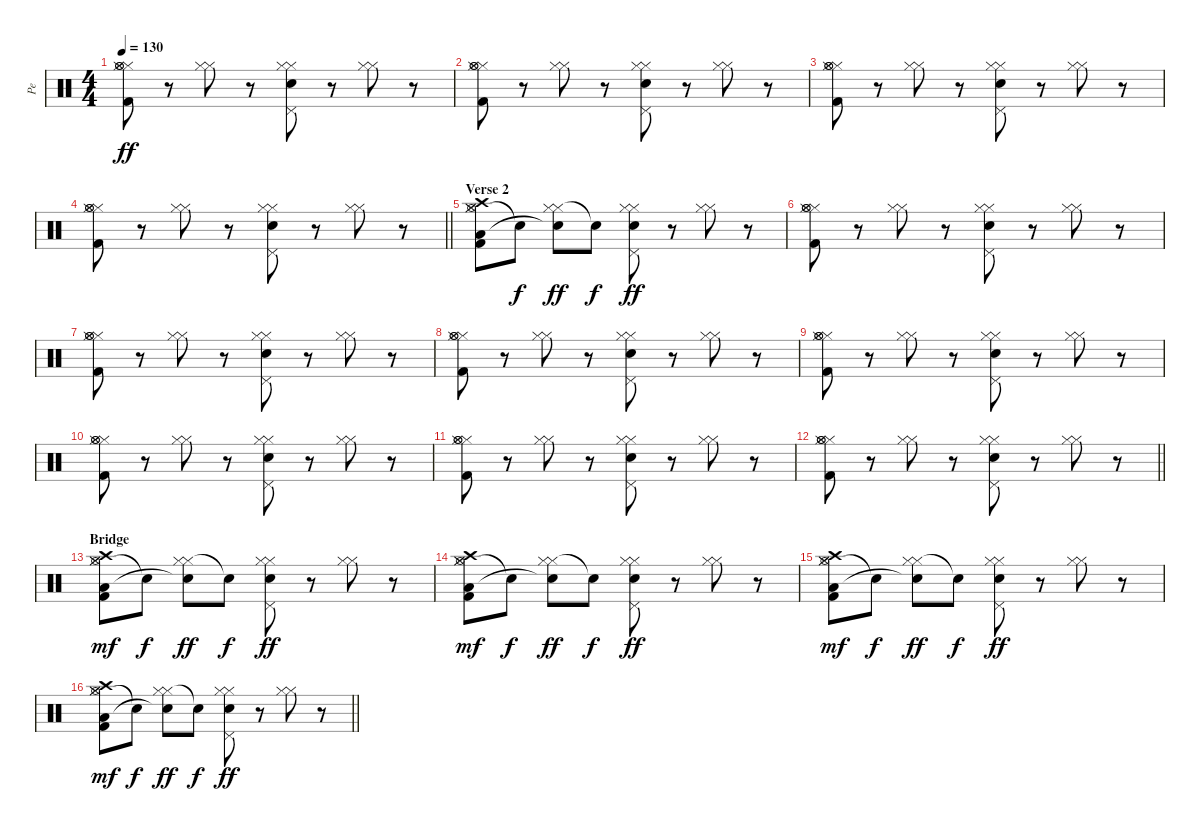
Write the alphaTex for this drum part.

\track ("Pe" "Pe") {instrument percussion}
\staff {score}
\articulation defaults
\ts (4 4)
\tempo 130
\clef neutral
\ks c
("Hi-Hat (closed)" "Hi-Hat (closed)" "Hi-Hat (open)" "Hi-Hat (open)" "Kick (hit) 2").8{dy ff} r.8 ("Hi-Hat (closed)" "Hi-Hat (closed)").8 r.8 ("Hi-Hat (closed)" "Hi-Hat (closed)" "Pedal Hi-Hat (hit)" "Electric Snare (hit)").8 r.8 ("Hi-Hat (closed)" "Hi-Hat (closed)").8 r.8 |
("Hi-Hat (closed)" "Hi-Hat (closed)" "Hi-Hat (open)" "Hi-Hat (open)" "Kick (hit) 2").8 r.8 ("Hi-Hat (closed)" "Hi-Hat (closed)").8 r.8 ("Hi-Hat (closed)" "Hi-Hat (closed)" "Pedal Hi-Hat (hit)" "Electric Snare (hit)").8 r.8 ("Hi-Hat (closed)" "Hi-Hat (closed)").8 r.8 |
("Hi-Hat (closed)" "Hi-Hat (closed)" "Hi-Hat (open)" "Hi-Hat (open)" "Kick (hit) 2").8 r.8 ("Hi-Hat (closed)" "Hi-Hat (closed)").8 r.8 ("Hi-Hat (closed)" "Hi-Hat (closed)" "Pedal Hi-Hat (hit)" "Electric Snare (hit)").8 r.8 ("Hi-Hat (closed)" "Hi-Hat (closed)").8 r.8 |
\barLineRight lightlight
("Hi-Hat (closed)" "Hi-Hat (closed)" "Hi-Hat (open)" "Hi-Hat (open)" "Kick (hit) 2").8 r.8 ("Hi-Hat (closed)" "Hi-Hat (closed)").8 r.8 ("Hi-Hat (closed)" "Hi-Hat (closed)" "Pedal Hi-Hat (hit)" "Electric Snare (hit)").8 r.8 ("Hi-Hat (closed)" "Hi-Hat (closed)").8 r.8 |
\section ("" "Verse 2")
("Hi-Hat (closed)" "Hi-Hat (closed)" "Low Floor Tom (hit)" "Hi-Hat (open)" "Crash high (hit)" "Kick (hit) 2").8 "Snare (hit)"{t}.8{dy f} ("Hi-Hat (closed)" "Hi-Hat (closed)" "Snare (hit)"{t}).8{dy ff} "Snare (hit)"{t}.8{dy f} ("Hi-Hat (closed)" "Hi-Hat (closed)" "Pedal Hi-Hat (hit)" "Electric Snare (hit)").8{dy ff} r.8 ("Hi-Hat (closed)" "Hi-Hat (closed)").8 r.8 |
("Hi-Hat (closed)" "Hi-Hat (closed)" "Hi-Hat (open)" "Hi-Hat (open)" "Kick (hit) 2").8 r.8 ("Hi-Hat (closed)" "Hi-Hat (closed)").8 r.8 ("Hi-Hat (closed)" "Hi-Hat (closed)" "Pedal Hi-Hat (hit)" "Electric Snare (hit)").8 r.8 ("Hi-Hat (closed)" "Hi-Hat (closed)").8 r.8 |
("Hi-Hat (closed)" "Hi-Hat (closed)" "Hi-Hat (open)" "Hi-Hat (open)" "Kick (hit) 2").8 r.8 ("Hi-Hat (closed)" "Hi-Hat (closed)").8 r.8 ("Hi-Hat (closed)" "Hi-Hat (closed)" "Pedal Hi-Hat (hit)" "Electric Snare (hit)").8 r.8 ("Hi-Hat (closed)" "Hi-Hat (closed)").8 r.8 |
("Hi-Hat (closed)" "Hi-Hat (closed)" "Hi-Hat (open)" "Hi-Hat (open)" "Kick (hit) 2").8 r.8 ("Hi-Hat (closed)" "Hi-Hat (closed)").8 r.8 ("Hi-Hat (closed)" "Hi-Hat (closed)" "Pedal Hi-Hat (hit)" "Electric Snare (hit)").8 r.8 ("Hi-Hat (closed)" "Hi-Hat (closed)").8 r.8 |
("Hi-Hat (closed)" "Hi-Hat (closed)" "Hi-Hat (open)" "Hi-Hat (open)" "Kick (hit) 2").8 r.8 ("Hi-Hat (closed)" "Hi-Hat (closed)").8 r.8 ("Hi-Hat (closed)" "Hi-Hat (closed)" "Pedal Hi-Hat (hit)" "Electric Snare (hit)").8 r.8 ("Hi-Hat (closed)" "Hi-Hat (closed)").8 r.8 |
("Hi-Hat (closed)" "Hi-Hat (closed)" "Hi-Hat (open)" "Hi-Hat (open)" "Kick (hit) 2").8 r.8 ("Hi-Hat (closed)" "Hi-Hat (closed)").8 r.8 ("Hi-Hat (closed)" "Hi-Hat (closed)" "Pedal Hi-Hat (hit)" "Electric Snare (hit)").8 r.8 ("Hi-Hat (closed)" "Hi-Hat (closed)").8 r.8 |
("Hi-Hat (closed)" "Hi-Hat (closed)" "Hi-Hat (open)" "Hi-Hat (open)" "Kick (hit) 2").8 r.8 ("Hi-Hat (closed)" "Hi-Hat (closed)").8 r.8 ("Hi-Hat (closed)" "Hi-Hat (closed)" "Pedal Hi-Hat (hit)" "Electric Snare (hit)").8 r.8 ("Hi-Hat (closed)" "Hi-Hat (closed)").8 r.8 |
\barLineRight lightlight
("Hi-Hat (closed)" "Hi-Hat (closed)" "Hi-Hat (open)" "Hi-Hat (open)" "Kick (hit) 2").8 r.8 ("Hi-Hat (closed)" "Hi-Hat (closed)").8 r.8 ("Hi-Hat (closed)" "Hi-Hat (closed)" "Pedal Hi-Hat (hit)" "Electric Snare (hit)").8 r.8 ("Hi-Hat (closed)" "Hi-Hat (closed)").8 r.8 |
\section ("" "Bridge")
("Hi-Hat (closed)" "Hi-Hat (closed)" "Low Floor Tom (hit)" "Hi-Hat (open)" "Crash high (hit)" "Kick (hit) 2").8{dy mf} "Snare (hit)"{t}.8{dy f} ("Hi-Hat (closed)" "Hi-Hat (closed)" "Snare (hit)"{t}).8{dy ff} "Snare (hit)"{t}.8{dy f} ("Hi-Hat (closed)" "Hi-Hat (closed)" "Pedal Hi-Hat (hit)" "Electric Snare (hit)").8{dy ff} r.8 ("Hi-Hat (closed)" "Hi-Hat (closed)").8 r.8 |
("Hi-Hat (closed)" "Hi-Hat (closed)" "Low Floor Tom (hit)" "Hi-Hat (open)" "Crash high (hit)" "Kick (hit) 2").8{dy mf} "Snare (hit)"{t}.8{dy f} ("Hi-Hat (closed)" "Hi-Hat (closed)" "Snare (hit)"{t}).8{dy ff} "Snare (hit)"{t}.8{dy f} ("Hi-Hat (closed)" "Hi-Hat (closed)" "Pedal Hi-Hat (hit)" "Electric Snare (hit)").8{dy ff} r.8 ("Hi-Hat (closed)" "Hi-Hat (closed)").8 r.8 |
("Hi-Hat (closed)" "Hi-Hat (closed)" "Low Floor Tom (hit)" "Hi-Hat (open)" "Crash high (hit)" "Kick (hit) 2").8{dy mf} "Snare (hit)"{t}.8{dy f} ("Hi-Hat (closed)" "Hi-Hat (closed)" "Snare (hit)"{t}).8{dy ff} "Snare (hit)"{t}.8{dy f} ("Hi-Hat (closed)" "Hi-Hat (closed)" "Pedal Hi-Hat (hit)" "Electric Snare (hit)").8{dy ff} r.8 ("Hi-Hat (closed)" "Hi-Hat (closed)").8 r.8 |
\barLineRight lightlight
("Hi-Hat (closed)" "Hi-Hat (closed)" "Low Floor Tom (hit)" "Hi-Hat (open)" "Crash high (hit)" "Kick (hit) 2").8{dy mf} "Snare (hit)"{t}.8{dy f} ("Hi-Hat (closed)" "Hi-Hat (closed)" "Snare (hit)"{t}).8{dy ff} "Snare (hit)"{t}.8{dy f} ("Hi-Hat (closed)" "Hi-Hat (closed)" "Pedal Hi-Hat (hit)" "Electric Snare (hit)").8{dy ff} r.8 ("Hi-Hat (closed)" "Hi-Hat (closed)").8 r.8
